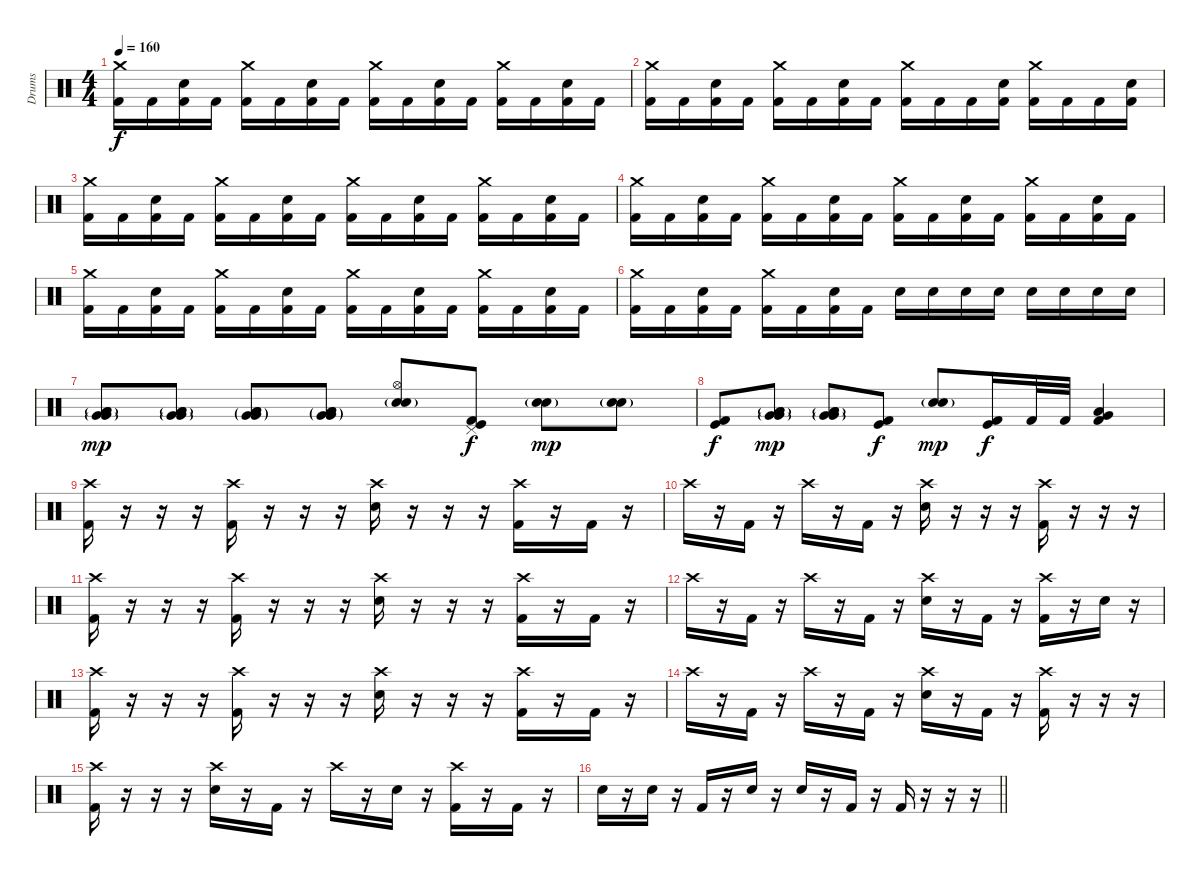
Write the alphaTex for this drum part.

\track ("Drums" "Drums") {instrument percussion}
\staff {score}
\articulation defaults
\ts (4 4)
\tempo 160
\clef neutral
\ks c
("Crash medium (hit)" "Kick (hit) 2").16{dy f} "Kick (hit) 2".16 ("Electric Snare (hit)" "Kick (hit) 2").16 "Kick (hit) 2".16 ("Crash medium (hit)" "Kick (hit) 2").16 "Kick (hit) 2".16 ("Electric Snare (hit)" "Kick (hit) 2").16 "Kick (hit) 2".16 ("Crash medium (hit)" "Kick (hit) 2").16 "Kick (hit) 2".16 ("Electric Snare (hit)" "Kick (hit) 2").16 "Kick (hit) 2".16 ("Crash medium (hit)" "Kick (hit) 2").16 "Kick (hit) 2".16 ("Electric Snare (hit)" "Kick (hit) 2").16 "Kick (hit) 2".16 |
("Crash medium (hit)" "Kick (hit) 2").16 "Kick (hit) 2".16 ("Electric Snare (hit)" "Kick (hit) 2").16 "Kick (hit) 2".16 ("Crash medium (hit)" "Kick (hit) 2").16 "Kick (hit) 2".16 ("Electric Snare (hit)" "Kick (hit) 2").16 "Kick (hit) 2".16 ("Crash medium (hit)" "Kick (hit) 2").16 "Kick (hit) 2".16 "Kick (hit) 2".16 ("Electric Snare (hit)" "Kick (hit) 2").16 ("Crash medium (hit)" "Kick (hit) 2").16 "Kick (hit) 2".16 "Kick (hit) 2".16 ("Electric Snare (hit)" "Kick (hit) 2").16 |
("Crash medium (hit)" "Kick (hit) 2").16 "Kick (hit) 2".16 ("Electric Snare (hit)" "Kick (hit) 2").16 "Kick (hit) 2".16 ("Crash medium (hit)" "Kick (hit) 2").16 "Kick (hit) 2".16 ("Electric Snare (hit)" "Kick (hit) 2").16 "Kick (hit) 2".16 ("Crash medium (hit)" "Kick (hit) 2").16 "Kick (hit) 2".16 ("Electric Snare (hit)" "Kick (hit) 2").16 "Kick (hit) 2".16 ("Crash medium (hit)" "Kick (hit) 2").16 "Kick (hit) 2".16 ("Electric Snare (hit)" "Kick (hit) 2").16 "Kick (hit) 2".16 |
("Crash medium (hit)" "Kick (hit) 2").16 "Kick (hit) 2".16 ("Electric Snare (hit)" "Kick (hit) 2").16 "Kick (hit) 2".16 ("Crash medium (hit)" "Kick (hit) 2").16 "Kick (hit) 2".16 ("Electric Snare (hit)" "Kick (hit) 2").16 "Kick (hit) 2".16 ("Crash medium (hit)" "Kick (hit) 2").16 "Kick (hit) 2".16 ("Electric Snare (hit)" "Kick (hit) 2").16 "Kick (hit) 2".16 ("Crash medium (hit)" "Kick (hit) 2").16 "Kick (hit) 2".16 ("Electric Snare (hit)" "Kick (hit) 2").16 "Kick (hit) 2".16 |
("Crash medium (hit)" "Kick (hit) 2").16 "Kick (hit) 2".16 ("Electric Snare (hit)" "Kick (hit) 2").16 "Kick (hit) 2".16 ("Crash medium (hit)" "Kick (hit) 2").16 "Kick (hit) 2".16 ("Electric Snare (hit)" "Kick (hit) 2").16 "Kick (hit) 2".16 ("Crash medium (hit)" "Kick (hit) 2").16 "Kick (hit) 2".16 ("Electric Snare (hit)" "Kick (hit) 2").16 "Kick (hit) 2".16 ("Crash medium (hit)" "Kick (hit) 2").16 "Kick (hit) 2".16 ("Electric Snare (hit)" "Kick (hit) 2").16 "Kick (hit) 2".16 |
("Crash medium (hit)" "Kick (hit) 2").16 "Kick (hit) 2".16 ("Electric Snare (hit)" "Kick (hit) 2").16 "Kick (hit) 2".16 ("Crash medium (hit)" "Kick (hit) 2").16 "Kick (hit) 2".16 ("Electric Snare (hit)" "Kick (hit) 2").16 "Kick (hit) 2".16 "Electric Snare (hit)".16 "Electric Snare (hit)".16 "Electric Snare (hit)".16 "Electric Snare (hit)".16 "Electric Snare (hit)".16 "Electric Snare (hit)".16 "Electric Snare (hit)".16 "Electric Snare (hit)".16 |
("Low Tom (hit)"{g} "Low Tom (hit)" "Very Low Tom (hit)" "Very Low Tom (hit)"{g}).8{dy mp} ("Low Tom (hit)"{g} "Low Tom (hit)" "Very Low Tom (hit)" "Very Low Tom (hit)"{g}).8 ("Very Low Tom (hit)"{g} "Very Low Tom (hit)" "Low Floor Tom (hit)" "Low Floor Tom (hit)"{g}).8 ("Very Low Tom (hit)"{g} "Very Low Tom (hit)" "Low Floor Tom (hit)" "Low Floor Tom (hit)"{g}).8 ("Hi-Hat (open)" "Snare (hit) 2"{g} "Electric Snare (hit)").8 ("Pedal Hi-Hat (hit)" "Kick (hit)" "Kick (hit) 2").8{dy f} ("Electric Snare (hit)" "Snare (hit) 2"{g}).8{dy mp} ("Electric Snare (hit)" "Snare (hit) 2"{g}).8 |
("Kick (hit)" "Kick (hit) 2").8{dy f} ("Low Tom (hit)"{g} "Low Tom (hit)" "Very Low Tom (hit)" "Very Low Tom (hit)"{g}).8{dy mp} ("Low Tom (hit)"{g} "Low Tom (hit)" "Very Low Tom (hit)" "Very Low Tom (hit)"{g}).8 ("Kick (hit)" "Kick (hit) 2").8{dy f} ("Electric Snare (hit)" "Snare (hit) 2"{g}).8{dy mp} ("Kick (hit)" "Kick (hit) 2").16{dy f} "Kick (hit) 2".32 "Kick (hit) 2".32 ("Low Tom (hit)" "Very Low Tom (hit)" "Kick (hit) 2").4 |
("Crash high (hit)" "Kick (hit) 2").16 r.16 r.16 r.16 ("Crash high (hit)" "Kick (hit) 2").16 r.16 r.16 r.16 ("Crash high (hit)" "Electric Snare (hit)").16 r.16 r.16 r.16 ("Crash high (hit)" "Kick (hit) 2").16 r.16 "Kick (hit) 2".16 r.16 |
"Crash high (hit)".16 r.16 "Kick (hit) 2".16 r.16 "Crash high (hit)".16 r.16 "Kick (hit) 2".16 r.16 ("Crash high (hit)" "Electric Snare (hit)").16 r.16 r.16 r.16 ("Crash high (hit)" "Kick (hit) 2").16 r.16 r.16 r.16 |
("Crash high (hit)" "Kick (hit) 2").16 r.16 r.16 r.16 ("Crash high (hit)" "Kick (hit) 2").16 r.16 r.16 r.16 ("Crash high (hit)" "Electric Snare (hit)").16 r.16 r.16 r.16 ("Crash high (hit)" "Kick (hit) 2").16 r.16 "Kick (hit) 2".16 r.16 |
"Crash high (hit)".16 r.16 "Kick (hit) 2".16 r.16 "Crash high (hit)".16 r.16 "Kick (hit) 2".16 r.16 ("Crash high (hit)" "Electric Snare (hit)").16 r.16 "Kick (hit) 2".16 r.16 ("Crash high (hit)" "Kick (hit) 2").16 r.16 "Electric Snare (hit)".16 r.16 |
("Crash high (hit)" "Kick (hit) 2").16 r.16 r.16 r.16 ("Crash high (hit)" "Kick (hit) 2").16 r.16 r.16 r.16 ("Crash high (hit)" "Electric Snare (hit)").16 r.16 r.16 r.16 ("Crash high (hit)" "Kick (hit) 2").16 r.16 "Kick (hit) 2".16 r.16 |
"Crash high (hit)".16 r.16 "Kick (hit) 2".16 r.16 "Crash high (hit)".16 r.16 "Kick (hit) 2".16 r.16 ("Crash high (hit)" "Electric Snare (hit)").16 r.16 "Kick (hit) 2".16 r.16 ("Crash high (hit)" "Kick (hit) 2").16 r.16 r.16 r.16 |
("Crash high (hit)" "Kick (hit) 2").16 r.16 r.16 r.16 ("Crash high (hit)" "Electric Snare (hit)").16 r.16 "Kick (hit) 2".16 r.16 "Crash high (hit)".16 r.16 "Electric Snare (hit)".16 r.16 ("Crash high (hit)" "Kick (hit) 2").16 r.16 "Kick (hit) 2".16 r.16 |
\barLineRight lightlight "Electric Snare (hit)".16
r.16 "Electric Snare (hit)".16 r.16 "Kick (hit) 2".16 r.16 "Electric Snare (hit)".16 r.16 "Electric Snare (hit)".16 r.16 "Kick (hit) 2".16 r.16 "Kick (hit) 2".16 r.16 r.16 r.16
